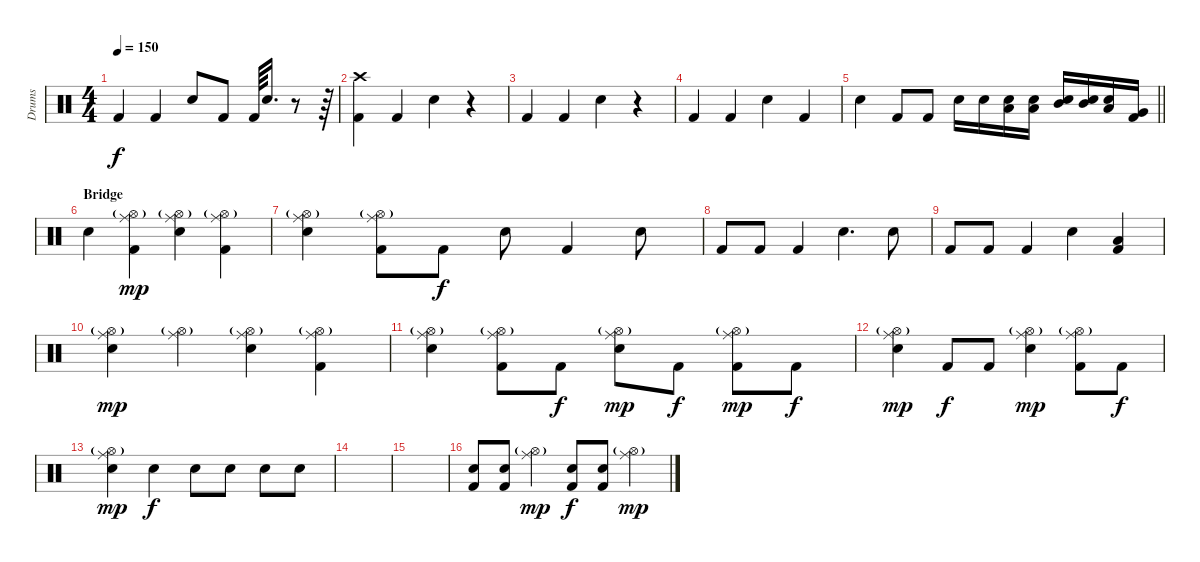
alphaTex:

\track ("Drums" "Drums") {instrument percussion bank 1}
\staff {score}
\articulation defaults
\ts (4 4)
\tempo 150
\clef neutral
\ks c "Kick (hit) 2".4{dy f} "Kick (hit) 2".4 "Snare (hit) 2".8 "Kick (hit) 2".8 "Kick (hit) 2".64 "Snare (hit) 2".16{d}
r.8 r.64 |
("Crash high (hit)" "Kick (hit) 2").4 "Kick (hit) 2".4 "Snare (hit) 2".4 r.4 |
"Kick (hit) 2".4 "Kick (hit) 2".4 "Snare (hit) 2".4 r.4 |
"Kick (hit) 2".4 "Kick (hit) 2".4 "Snare (hit) 2".4 "Kick (hit) 2".4 |
\barLineRight lightlight "Snare (hit) 2".4 "Kick (hit) 2".8 "Kick (hit) 2".8 "Snare (hit) 2".16 "Snare (hit) 2".16
("Snare (hit) 2" "Low Tom (hit)").16 ("Snare (hit) 2" "Low Tom (hit)").16 ("Snare (hit) 2" "Mid Tom (hit)").16 ("Snare (hit) 2" "Mid Tom (hit)").16 ("Snare (hit) 2" "Low Tom (hit)").16 ("Kick (hit) 2" "Very Low Tom (hit)").16 |
\section ("" "Bridge")
"Snare (hit) 2".4 ("Ride (middle)" "Kick (hit) 2" "Hi-Hat (open)"{g}).4{dy mp} ("Ride (middle)" "Snare (hit) 2" "Hi-Hat (open)"{g}).4 ("Ride (middle)" "Kick (hit) 2" "Hi-Hat (open)"{g}).4 |
("Ride (middle)" "Snare (hit) 2" "Hi-Hat (open)"{g}).4 ("Ride (middle)" "Kick (hit) 2" "Hi-Hat (open)"{g}).8 "Kick (hit) 2".8{dy f} "Snare (hit) 2".8 "Kick (hit) 2".4 "Snare (hit) 2".8 |
"Kick (hit) 2".8 "Kick (hit) 2".8 "Kick (hit) 2".4 "Snare (hit) 2".4{d} "Snare (hit) 2".8 |
"Kick (hit) 2".8 "Kick (hit) 2".8 "Kick (hit) 2".4 "Snare (hit) 2".4 ("Kick (hit) 2" "Low Tom (hit)").4 |
("Ride (middle)" "Snare (hit) 2" "Hi-Hat (open)"{g}).4{dy mp} ("Ride (middle)" "Hi-Hat (open)"{g}).4 ("Ride (middle)" "Snare (hit) 2" "Hi-Hat (open)"{g}).4 ("Ride (middle)" "Kick (hit) 2" "Hi-Hat (open)"{g}).4 |
("Ride (middle)" "Snare (hit) 2" "Hi-Hat (open)"{g}).4 ("Ride (middle)" "Kick (hit) 2" "Hi-Hat (open)"{g}).8 "Kick (hit) 2".8{dy f} ("Ride (middle)" "Snare (hit) 2" "Hi-Hat (open)"{g}).8{dy mp} "Kick (hit) 2".8{dy f} ("Ride (middle)" "Kick (hit) 2" "Hi-Hat (open)"{g}).8{dy mp} "Kick (hit) 2".8{dy f} |
("Ride (middle)" "Snare (hit) 2" "Hi-Hat (open)"{g}).4{dy mp} "Kick (hit) 2".8{dy f} "Kick (hit) 2".8 ("Ride (middle)" "Snare (hit) 2" "Hi-Hat (open)"{g}).4{dy mp} ("Ride (middle)" "Kick (hit) 2" "Hi-Hat (open)"{g}).8 "Kick (hit) 2".8{dy f} |
("Ride (middle)" "Snare (hit) 2" "Hi-Hat (open)"{g}).4{dy mp} "Snare (hit) 2".4{dy f} "Snare (hit) 2".8 "Snare (hit) 2".8 "Snare (hit) 2".8 "Snare (hit) 2".8 |
|
|
("Kick (hit) 2" "Snare (hit) 2").8 ("Kick (hit) 2" "Snare (hit) 2").8 ("Ride (middle)" "Hi-Hat (open)"{g}).4{dy mp} ("Kick (hit) 2" "Snare (hit) 2").8{dy f} ("Kick (hit) 2" "Snare (hit) 2").8 ("Ride (middle)" "Hi-Hat (open)"{g}).4{dy mp}
